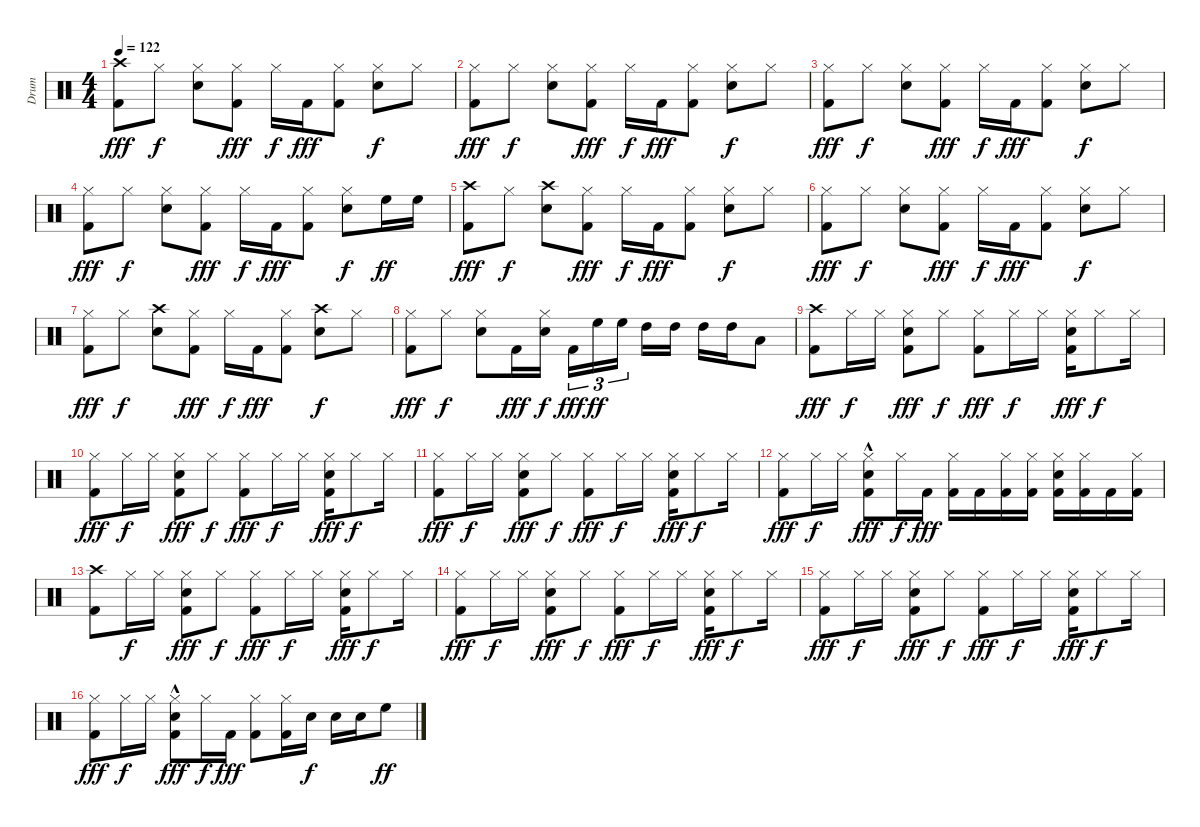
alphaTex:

\track ("Drum" "Drum") {instrument percussion}
\staff {score}
\articulation defaults
\ts (4 4)
\tempo 122
\clef neutral
\ks c
("Crash high (hit)" "Kick (hit) 2").8{dy fff} "Hi-Hat (closed)".8{dy f} ("Hi-Hat (closed)" "Snare (hit) 2").8 ("Hi-Hat (closed)" "Kick (hit) 2").8{dy fff} "Hi-Hat (closed)".16{dy f} "Kick (hit) 2".16{dy fff} ("Hi-Hat (closed)" "Kick (hit) 2").8 ("Hi-Hat (closed)" "Snare (hit) 2").8{dy f} "Hi-Hat (closed)".8 |
("Hi-Hat (closed)" "Kick (hit) 2").8{dy fff} "Hi-Hat (closed)".8{dy f} ("Hi-Hat (closed)" "Snare (hit) 2").8 ("Hi-Hat (closed)" "Kick (hit) 2").8{dy fff} "Hi-Hat (closed)".16{dy f} "Kick (hit) 2".16{dy fff} ("Hi-Hat (closed)" "Kick (hit) 2").8 ("Hi-Hat (closed)" "Snare (hit) 2").8{dy f} "Hi-Hat (closed)".8 |
("Hi-Hat (closed)" "Kick (hit) 2").8{dy fff} "Hi-Hat (closed)".8{dy f} ("Hi-Hat (closed)" "Snare (hit) 2").8 ("Hi-Hat (closed)" "Kick (hit) 2").8{dy fff} "Hi-Hat (closed)".16{dy f} "Kick (hit) 2".16{dy fff} ("Hi-Hat (closed)" "Kick (hit) 2").8 ("Hi-Hat (closed)" "Snare (hit) 2").8{dy f} "Hi-Hat (closed)".8 |
("Hi-Hat (closed)" "Kick (hit) 2").8{dy fff} "Hi-Hat (closed)".8{dy f} ("Hi-Hat (closed)" "Snare (hit) 2").8 ("Hi-Hat (closed)" "Kick (hit) 2").8{dy fff} "Hi-Hat (closed)".16{dy f} "Kick (hit) 2".16{dy fff} ("Hi-Hat (closed)" "Kick (hit) 2").8 ("Hi-Hat (closed)" "Snare (hit) 2").8{dy f} "High Floor Tom (hit)".16{dy ff} "High Floor Tom (hit)".16 |
("Crash high (hit)" "Kick (hit) 2").8{dy fff} "Hi-Hat (closed)".8{dy f} ("Crash high (hit)" "Snare (hit) 2").8 ("Hi-Hat (closed)" "Kick (hit) 2").8{dy fff} "Hi-Hat (closed)".16{dy f} "Kick (hit) 2".16{dy fff} ("Hi-Hat (closed)" "Kick (hit) 2").8 ("Hi-Hat (closed)" "Snare (hit) 2").8{dy f} "Hi-Hat (closed)".8 |
("Hi-Hat (closed)" "Kick (hit) 2").8{dy fff} "Hi-Hat (closed)".8{dy f} ("Hi-Hat (closed)" "Snare (hit) 2").8 ("Hi-Hat (closed)" "Kick (hit) 2").8{dy fff} "Hi-Hat (closed)".16{dy f} "Kick (hit) 2".16{dy fff} ("Hi-Hat (closed)" "Kick (hit) 2").8 ("Hi-Hat (closed)" "Snare (hit) 2").8{dy f} "Hi-Hat (closed)".8 |
("Hi-Hat (closed)" "Kick (hit) 2").8{dy fff} "Hi-Hat (closed)".8{dy f} ("Crash high (hit)" "Snare (hit) 2").8 ("Hi-Hat (closed)" "Kick (hit) 2").8{dy fff} "Hi-Hat (closed)".16{dy f} "Kick (hit) 2".16{dy fff} ("Hi-Hat (closed)" "Kick (hit) 2").8 ("Crash high (hit)" "Snare (hit) 2").8{dy f} "Hi-Hat (closed)".8 |
("Hi-Hat (closed)" "Kick (hit) 2").8{dy fff} "Hi-Hat (closed)".8{dy f} ("Hi-Hat (closed)" "Snare (hit) 2").8 "Kick (hit) 2".16{dy fff} ("Hi-Hat (closed)" "Snare (hit) 2").16{dy f} "Kick (hit) 2".16{tu (3 2) dy fff} "High Floor Tom (hit)".16{tu (3 2) dy ff} "High Floor Tom (hit)".16{tu (3 2)} "High Tom (hit)".16 "High Tom (hit)".16 "High Tom (hit)".16 "High Tom (hit)".16 "Low Tom (hit)".8 |
("Crash high (hit)" "Kick (hit) 2").8{dy fff} "Hi-Hat (closed)".16{dy f} "Hi-Hat (closed)".16 ("Hi-Hat (closed)" "Snare (hit) 2" "Kick (hit) 2").8{dy fff} "Hi-Hat (closed)".8{dy f} ("Hi-Hat (closed)" "Kick (hit) 2").8{dy fff} "Hi-Hat (closed)".16{dy f} "Hi-Hat (closed)".16 ("Hi-Hat (closed)" "Snare (hit) 2" "Kick (hit) 2").16{dy fff} "Hi-Hat (closed)".8{dy f} "Hi-Hat (closed)".16 |
("Hi-Hat (closed)" "Kick (hit) 2").8{dy fff} "Hi-Hat (closed)".16{dy f} "Hi-Hat (closed)".16 ("Hi-Hat (closed)" "Snare (hit) 2" "Kick (hit) 2").8{dy fff} "Hi-Hat (closed)".8{dy f} ("Hi-Hat (closed)" "Kick (hit) 2").8{dy fff} "Hi-Hat (closed)".16{dy f} "Hi-Hat (closed)".16 ("Hi-Hat (closed)" "Snare (hit) 2" "Kick (hit) 2").16{dy fff} "Hi-Hat (closed)".8{dy f} "Hi-Hat (closed)".16 |
("Hi-Hat (closed)" "Kick (hit) 2").8{dy fff} "Hi-Hat (closed)".16{dy f} "Hi-Hat (closed)".16 ("Hi-Hat (closed)" "Snare (hit) 2" "Kick (hit) 2").8{dy fff} "Hi-Hat (closed)".8{dy f} ("Hi-Hat (closed)" "Kick (hit) 2").8{dy fff} "Hi-Hat (closed)".16{dy f} "Hi-Hat (closed)".16 ("Hi-Hat (closed)" "Snare (hit) 2" "Kick (hit) 2").16{dy fff} "Hi-Hat (closed)".8{dy f} "Hi-Hat (closed)".16 |
("Hi-Hat (closed)" "Kick (hit) 2").8{dy fff} "Hi-Hat (closed)".16{dy f} "Hi-Hat (closed)".16 ("Hi-Hat (closed)"{hac} "Snare (hit) 2" "Kick (hit) 2").8{dy fff} "Hi-Hat (closed)".16{dy f} "Kick (hit) 2".16{dy fff} ("Hi-Hat (closed)" "Kick (hit) 2").16 "Kick (hit) 2".16 ("Hi-Hat (closed)" "Kick (hit) 2").16 ("Hi-Hat (closed)" "Kick (hit) 2").16 ("Hi-Hat (closed)" "Snare (hit) 2" "Kick (hit) 2").16 ("Hi-Hat (closed)" "Kick (hit) 2").16 "Kick (hit) 2".16 ("Hi-Hat (closed)" "Kick (hit) 2").16 |
("Crash high (hit)" "Kick (hit) 2").8 "Hi-Hat (closed)".16{dy f} "Hi-Hat (closed)".16 ("Hi-Hat (closed)" "Snare (hit) 2" "Kick (hit) 2").8{dy fff} "Hi-Hat (closed)".8{dy f} ("Hi-Hat (closed)" "Kick (hit) 2").8{dy fff} "Hi-Hat (closed)".16{dy f} "Hi-Hat (closed)".16 ("Hi-Hat (closed)" "Snare (hit) 2" "Kick (hit) 2").16{dy fff} "Hi-Hat (closed)".8{dy f} "Hi-Hat (closed)".16 |
("Hi-Hat (closed)" "Kick (hit) 2").8{dy fff} "Hi-Hat (closed)".16{dy f} "Hi-Hat (closed)".16 ("Hi-Hat (closed)" "Snare (hit) 2" "Kick (hit) 2").8{dy fff} "Hi-Hat (closed)".8{dy f} ("Hi-Hat (closed)" "Kick (hit) 2").8{dy fff} "Hi-Hat (closed)".16{dy f} "Hi-Hat (closed)".16 ("Hi-Hat (closed)" "Snare (hit) 2" "Kick (hit) 2").16{dy fff} "Hi-Hat (closed)".8{dy f} "Hi-Hat (closed)".16 |
("Hi-Hat (closed)" "Kick (hit) 2").8{dy fff} "Hi-Hat (closed)".16{dy f} "Hi-Hat (closed)".16 ("Hi-Hat (closed)" "Snare (hit) 2" "Kick (hit) 2").8{dy fff} "Hi-Hat (closed)".8{dy f} ("Hi-Hat (closed)" "Kick (hit) 2").8{dy fff} "Hi-Hat (closed)".16{dy f} "Hi-Hat (closed)".16 ("Hi-Hat (closed)" "Snare (hit) 2" "Kick (hit) 2").16{dy fff} "Hi-Hat (closed)".8{dy f} "Hi-Hat (closed)".16 |
("Hi-Hat (closed)" "Kick (hit) 2").8{dy fff} "Hi-Hat (closed)".16{dy f} "Hi-Hat (closed)".16 ("Hi-Hat (closed)"{hac} "Snare (hit) 2" "Kick (hit) 2").8{dy fff} "Hi-Hat (closed)".16{dy f} "Kick (hit) 2".16{dy fff} ("Hi-Hat (closed)" "Kick (hit) 2").8 ("Hi-Hat (closed)" "Kick (hit) 2").16 "Snare (hit) 2".16{dy f} "Snare (hit) 2".16 "Snare (hit) 2".16 "High Floor Tom (hit)".8{dy ff}
